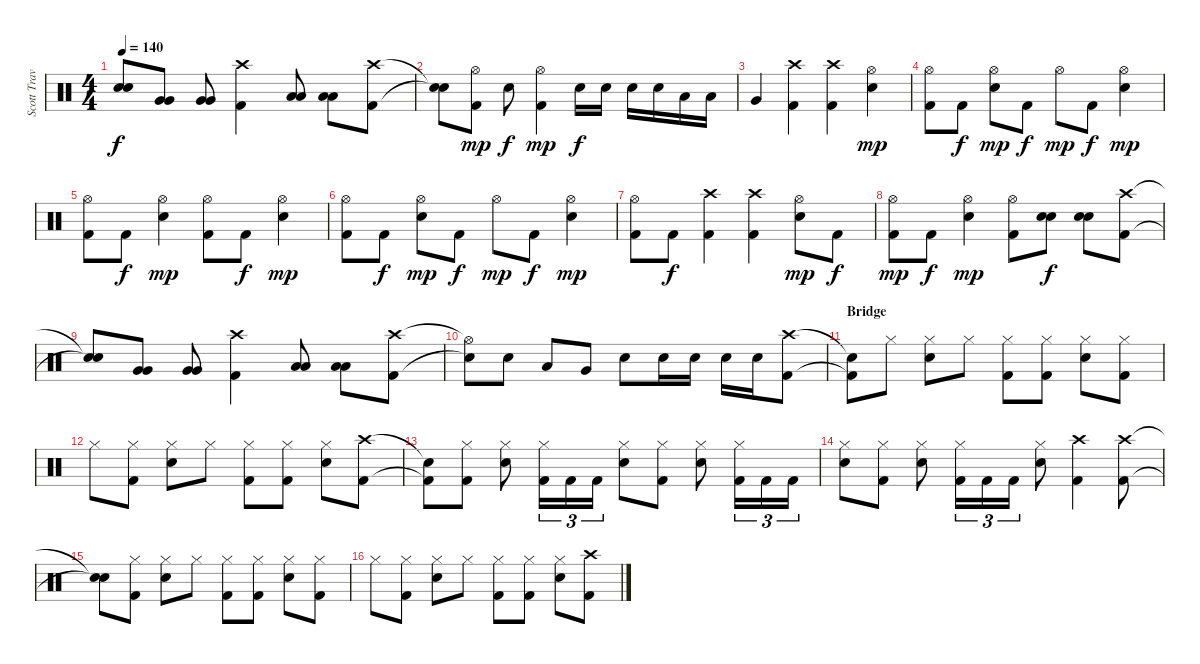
\track ("Scott Travis" "Scott Trav") {instrument percussion}
\staff {score}
\articulation defaults
\ts (4 4)
\tempo 140
\clef neutral
\ks c
("Snare (hit)"{t} "Snare (hit)"{t}).8{dy f} ("Very Low Tom (hit)" "Very Low Tom (hit)").8 ("Very Low Tom (hit)" "Very Low Tom (hit)").8 ("Crash high (hit)" "Kick (hit) 2").4 ("Low Tom (hit)" "Low Tom (hit)").8 ("Low Tom (hit)" "Low Tom (hit)").8 ("Crash high (hit)" "Kick (hit) 2").8 |
("Snare (hit)"{t} "Snare (hit)"{t}).8 ("Hi-Hat (open)" "Kick (hit) 2").8{dy mp} "Snare (hit) 2".8{dy f} ("Hi-Hat (open)" "Kick (hit) 2").4{dy mp} "Snare (hit) 2".16{dy f} "Snare (hit) 2".16 "Snare (hit) 2".16 "Snare (hit) 2".16 "Low Tom (hit)".16 "Low Tom (hit)".16 |
"Very Low Tom (hit)".4 ("Crash high (hit)" "Kick (hit) 2").4 ("Crash high (hit)" "Kick (hit) 2").4 ("Hi-Hat (open)" "Snare (hit) 2").4{dy mp} |
("Hi-Hat (open)" "Kick (hit) 2").8 "Kick (hit) 2".8{dy f} ("Hi-Hat (open)" "Snare (hit) 2").8{dy mp} "Kick (hit) 2".8{dy f} "Hi-Hat (open)".8{dy mp} "Kick (hit) 2".8{dy f} ("Hi-Hat (open)" "Snare (hit) 2").4{dy mp} |
("Hi-Hat (open)" "Kick (hit) 2").8 "Kick (hit) 2".8{dy f} ("Hi-Hat (open)" "Snare (hit) 2").4{dy mp} ("Hi-Hat (open)" "Kick (hit) 2").8 "Kick (hit) 2".8{dy f} ("Hi-Hat (open)" "Snare (hit) 2").4{dy mp} |
("Hi-Hat (open)" "Kick (hit) 2").8 "Kick (hit) 2".8{dy f} ("Hi-Hat (open)" "Snare (hit) 2").8{dy mp} "Kick (hit) 2".8{dy f} "Hi-Hat (open)".8{dy mp} "Kick (hit) 2".8{dy f} ("Hi-Hat (open)" "Snare (hit) 2").4{dy mp} |
("Hi-Hat (open)" "Kick (hit) 2").8 "Kick (hit) 2".8{dy f} ("Crash high (hit)" "Kick (hit) 2").4 ("Crash high (hit)" "Kick (hit) 2").4 ("Hi-Hat (open)" "Snare (hit) 2").8{dy mp} "Kick (hit) 2".8{dy f} |
("Hi-Hat (open)" "Kick (hit) 2").8{dy mp} "Kick (hit) 2".8{dy f} ("Hi-Hat (open)" "Snare (hit) 2").4{dy mp} ("Hi-Hat (open)" "Kick (hit) 2").8 ("Snare (hit) 2" "Snare (hit) 2").8{dy f} ("Snare (hit) 2" "Snare (hit) 2").8 ("Crash high (hit)" "Kick (hit) 2").8 |
("Snare (hit)"{t} "Snare (hit)"{t}).8 ("Very Low Tom (hit)" "Very Low Tom (hit)").8 ("Very Low Tom (hit)" "Very Low Tom (hit)").8 ("Crash high (hit)" "Kick (hit) 2").4 ("Low Tom (hit)" "Low Tom (hit)").8 ("Low Tom (hit)" "Low Tom (hit)").8 ("Crash high (hit)" "Kick (hit) 2").8 |
("Hi-Hat (open)"{t} "Snare (hit)"{t}).8 "Snare (hit) 2".8 "Low Tom (hit)".8 "Very Low Tom (hit)".8 "Snare (hit) 2".8 "Snare (hit) 2".16 "Snare (hit) 2".16 "Snare (hit) 2".16 "Snare (hit) 2".16 ("Crash high (hit)" "Kick (hit) 2").8 |
\section ("" "Bridge")
("Snare (hit)"{t} "Kick (hit) 2"{t}).8 "Hi-Hat (closed)".8 ("Hi-Hat (closed)" "Snare (hit) 2").8 "Hi-Hat (closed)".8 ("Hi-Hat (closed)" "Kick (hit) 2").8 ("Hi-Hat (closed)" "Kick (hit) 2").8 ("Hi-Hat (closed)" "Snare (hit) 2").8 ("Hi-Hat (closed)" "Kick (hit) 2").8 |
"Hi-Hat (closed)".8 ("Hi-Hat (closed)" "Kick (hit) 2").8 ("Hi-Hat (closed)" "Snare (hit) 2").8 "Hi-Hat (closed)".8 ("Hi-Hat (closed)" "Kick (hit) 2").8 ("Hi-Hat (closed)" "Kick (hit) 2").8 ("Hi-Hat (closed)" "Snare (hit) 2").8 ("Crash high (hit)" "Kick (hit) 2").8 |
("Snare (hit)"{t} "Kick (hit) 2"{t}).8 ("Hi-Hat (closed)" "Kick (hit) 2").8 ("Hi-Hat (closed)" "Snare (hit) 2").8 ("Hi-Hat (closed)" "Kick (hit) 2").16{tu (3 2)} "Kick (hit) 2".16{tu (3 2)} "Kick (hit) 2".16{tu (3 2)} ("Hi-Hat (closed)" "Snare (hit) 2").8 ("Hi-Hat (closed)" "Kick (hit) 2").8 ("Hi-Hat (closed)" "Snare (hit) 2").8 ("Hi-Hat (closed)" "Kick (hit) 2").16{tu (3 2)} "Kick (hit) 2".16{tu (3 2)} "Kick (hit) 2".16{tu (3 2)} |
("Hi-Hat (closed)" "Snare (hit) 2").8 ("Hi-Hat (closed)" "Kick (hit) 2").8 ("Hi-Hat (closed)" "Snare (hit) 2").8 ("Hi-Hat (closed)" "Kick (hit) 2").16{tu (3 2)} "Kick (hit) 2".16{tu (3 2)} "Kick (hit) 2".16{tu (3 2)} ("Hi-Hat (closed)" "Snare (hit) 2").8 ("Crash high (hit)" "Kick (hit) 2").4 ("Crash high (hit)" "Kick (hit) 2").8 |
("Snare (hit)"{t} "Snare (hit)"{t}).8 ("Hi-Hat (closed)" "Kick (hit) 2").8 ("Hi-Hat (closed)" "Snare (hit) 2").8 "Hi-Hat (closed)".8 ("Hi-Hat (closed)" "Kick (hit) 2").8 ("Hi-Hat (closed)" "Kick (hit) 2").8 ("Hi-Hat (closed)" "Snare (hit) 2").8 ("Hi-Hat (closed)" "Kick (hit) 2").8 |
"Hi-Hat (closed)".8 ("Hi-Hat (closed)" "Kick (hit) 2").8 ("Hi-Hat (closed)" "Snare (hit) 2").8 "Hi-Hat (closed)".8 ("Hi-Hat (closed)" "Kick (hit) 2").8 ("Hi-Hat (closed)" "Kick (hit) 2").8 ("Hi-Hat (closed)" "Snare (hit) 2").8 ("Crash high (hit)" "Kick (hit) 2").8
